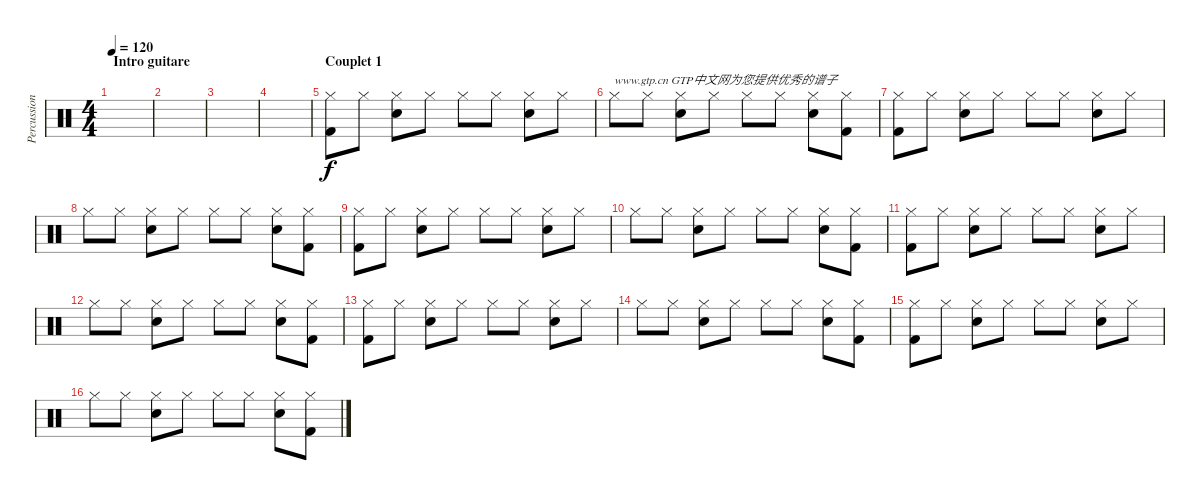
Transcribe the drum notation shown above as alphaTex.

\track ("Percussions" "Percussion") {instrument percussion}
\staff {score}
\articulation defaults
\ts (4 4)
\section ("" "Intro guitare")
\tempo 120
\clef neutral
\ks c
|
|
|
|
\section ("" "Couplet 1")
("Hi-Hat (closed)" "Kick (hit) 2").8 "Hi-Hat (closed)".8 ("Hi-Hat (closed)" "Electric Snare (hit)").8 "Hi-Hat (closed)".8 "Hi-Hat (closed)".8 "Hi-Hat (closed)".8 ("Hi-Hat (closed)" "Electric Snare (hit)").8 "Hi-Hat (closed)".8 |
"Hi-Hat (closed)".8{txt "www.gtp.cn GTP中文网为您提供优秀的谱子"} "Hi-Hat (closed)".8 ("Hi-Hat (closed)" "Electric Snare (hit)").8 "Hi-Hat (closed)".8 "Hi-Hat (closed)".8 "Hi-Hat (closed)".8 ("Hi-Hat (closed)" "Electric Snare (hit)").8 ("Hi-Hat (closed)" "Kick (hit) 2").8 |
("Hi-Hat (closed)" "Kick (hit) 2").8 "Hi-Hat (closed)".8 ("Hi-Hat (closed)" "Electric Snare (hit)").8 "Hi-Hat (closed)".8 "Hi-Hat (closed)".8 "Hi-Hat (closed)".8 ("Hi-Hat (closed)" "Electric Snare (hit)").8 "Hi-Hat (closed)".8 |
"Hi-Hat (closed)".8 "Hi-Hat (closed)".8 ("Hi-Hat (closed)" "Electric Snare (hit)").8 "Hi-Hat (closed)".8 "Hi-Hat (closed)".8 "Hi-Hat (closed)".8 ("Hi-Hat (closed)" "Electric Snare (hit)").8 ("Hi-Hat (closed)" "Kick (hit) 2").8 |
("Hi-Hat (closed)" "Kick (hit) 2").8 "Hi-Hat (closed)".8 ("Hi-Hat (closed)" "Electric Snare (hit)").8 "Hi-Hat (closed)".8 "Hi-Hat (closed)".8 "Hi-Hat (closed)".8 ("Hi-Hat (closed)" "Electric Snare (hit)").8 "Hi-Hat (closed)".8 |
"Hi-Hat (closed)".8 "Hi-Hat (closed)".8 ("Hi-Hat (closed)" "Electric Snare (hit)").8 "Hi-Hat (closed)".8 "Hi-Hat (closed)".8 "Hi-Hat (closed)".8 ("Hi-Hat (closed)" "Electric Snare (hit)").8 ("Hi-Hat (closed)" "Kick (hit) 2").8 |
("Hi-Hat (closed)" "Kick (hit) 2").8 "Hi-Hat (closed)".8 ("Hi-Hat (closed)" "Electric Snare (hit)").8 "Hi-Hat (closed)".8 "Hi-Hat (closed)".8 "Hi-Hat (closed)".8 ("Hi-Hat (closed)" "Electric Snare (hit)").8 "Hi-Hat (closed)".8 |
"Hi-Hat (closed)".8 "Hi-Hat (closed)".8 ("Hi-Hat (closed)" "Electric Snare (hit)").8 "Hi-Hat (closed)".8 "Hi-Hat (closed)".8 "Hi-Hat (closed)".8 ("Hi-Hat (closed)" "Electric Snare (hit)").8 ("Hi-Hat (closed)" "Kick (hit) 2").8 |
("Hi-Hat (closed)" "Kick (hit) 2").8 "Hi-Hat (closed)".8 ("Hi-Hat (closed)" "Electric Snare (hit)").8 "Hi-Hat (closed)".8 "Hi-Hat (closed)".8 "Hi-Hat (closed)".8 ("Hi-Hat (closed)" "Electric Snare (hit)").8 "Hi-Hat (closed)".8 |
"Hi-Hat (closed)".8 "Hi-Hat (closed)".8 ("Hi-Hat (closed)" "Electric Snare (hit)").8 "Hi-Hat (closed)".8 "Hi-Hat (closed)".8 "Hi-Hat (closed)".8 ("Hi-Hat (closed)" "Electric Snare (hit)").8 ("Hi-Hat (closed)" "Kick (hit) 2").8 |
("Hi-Hat (closed)" "Kick (hit) 2").8 "Hi-Hat (closed)".8 ("Hi-Hat (closed)" "Electric Snare (hit)").8 "Hi-Hat (closed)".8 "Hi-Hat (closed)".8 "Hi-Hat (closed)".8 ("Hi-Hat (closed)" "Electric Snare (hit)").8 "Hi-Hat (closed)".8 |
"Hi-Hat (closed)".8 "Hi-Hat (closed)".8 ("Hi-Hat (closed)" "Electric Snare (hit)").8 "Hi-Hat (closed)".8 "Hi-Hat (closed)".8 "Hi-Hat (closed)".8 ("Hi-Hat (closed)" "Electric Snare (hit)").8 ("Hi-Hat (closed)" "Kick (hit) 2").8
